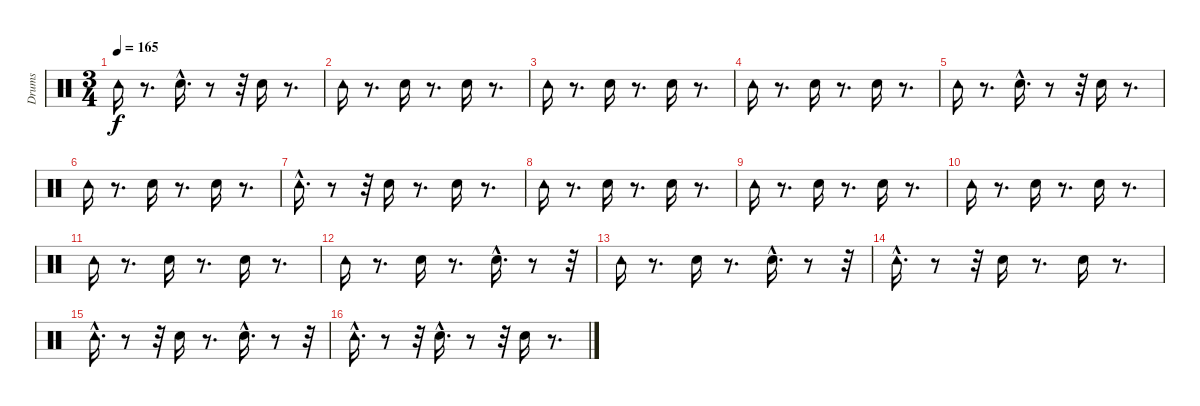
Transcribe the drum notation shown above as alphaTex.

\track ("Drums" "Drums") {instrument percussion}
\staff {score}
\articulation defaults
\ts (3 4)
\tempo 165
\clef neutral
\ks c "Tambourine (hit)".16{dy f}
r.8{d} "Snare (hit)"{hac}.16{d} r.8 r.32 "Snare (hit)".16 r.8{d} |
"Tambourine (hit)".16 r.8{d} "Snare (hit)".16 r.8{d} "Snare (hit)".16 r.8{d} |
"Tambourine (hit)".16 r.8{d} "Snare (hit)".16 r.8{d} "Snare (hit)".16 r.8{d} |
"Tambourine (hit)".16 r.8{d} "Snare (hit)".16 r.8{d} "Snare (hit)".16 r.8{d} |
"Tambourine (hit)".16 r.8{d} "Snare (hit)"{hac}.16{d} r.8 r.32 "Snare (hit)".16 r.8{d} |
"Tambourine (hit)".16 r.8{d} "Snare (hit)".16 r.8{d} "Snare (hit)".16 r.8{d} |
"Tambourine (hit)"{hac}.16{d} r.8 r.32 "Snare (hit)".16 r.8{d} "Snare (hit)".16 r.8{d} |
"Tambourine (hit)".16 r.8{d} "Snare (hit)".16 r.8{d} "Snare (hit)".16 r.8{d} |
"Tambourine (hit)".16 r.8{d} "Snare (hit)".16 r.8{d} "Snare (hit)".16 r.8{d} |
"Tambourine (hit)".16 r.8{d} "Snare (hit)".16 r.8{d} "Snare (hit)".16 r.8{d} |
"Tambourine (hit)".16 r.8{d} "Snare (hit)".16 r.8{d} "Snare (hit)".16 r.8{d} |
"Tambourine (hit)".16 r.8{d} "Snare (hit)".16 r.8{d} "Snare (hit)"{hac}.16{d} r.8 r.32 |
"Tambourine (hit)".16 r.8{d} "Snare (hit)".16 r.8{d} "Snare (hit)"{hac}.16{d} r.8 r.32 |
"Tambourine (hit)"{hac}.16{d} r.8 r.32 "Snare (hit)".16 r.8{d} "Snare (hit)".16 r.8{d} |
"Tambourine (hit)"{hac}.16{d} r.8 r.32 "Snare (hit)".16 r.8{d} "Snare (hit)"{hac}.16{d} r.8 r.32 |
"Tambourine (hit)"{hac}.16{d} r.8 r.32 "Snare (hit)"{hac}.16{d} r.8 r.32 "Snare (hit)".16 r.8{d}
